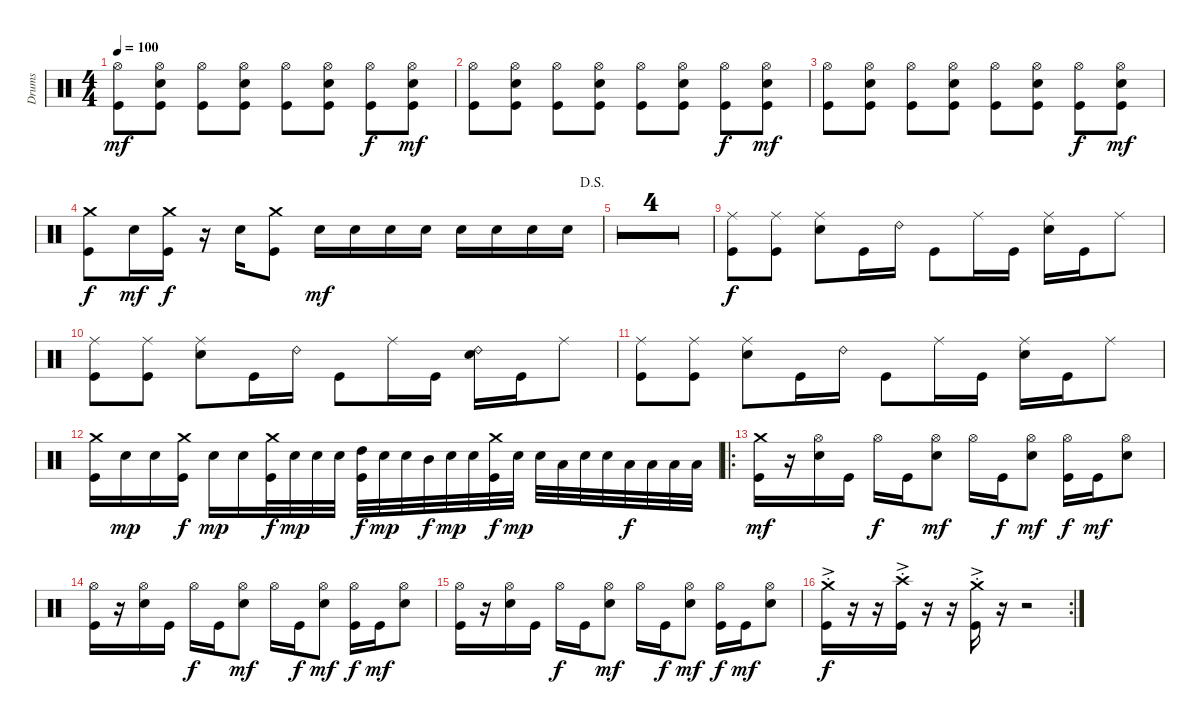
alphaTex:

\bracketExtendMode groupsimilarinstruments
\otherSystemsTrackNameOrientation horizontal
\track ("Drumkit" "Drums") {multiBarRest instrument percussion}
\staff {score}
\articulation defaults
\ts (4 4)
\tempo 100
\clef neutral
\ks c
("Hi-Hat (open)" "Kick (hit)").8{dy mf} ("Hi-Hat (open)" "Snare (hit) 2" "Kick (hit)").8 ("Hi-Hat (open)" "Kick (hit)").8 ("Hi-Hat (open)" "Snare (hit) 2" "Kick (hit)").8 ("Hi-Hat (open)" "Kick (hit)").8 ("Hi-Hat (open)" "Snare (hit) 2" "Kick (hit)").8 ("Hi-Hat (open)" "Kick (hit)").8{dy f} ("Hi-Hat (open)" "Snare (hit) 2" "Kick (hit)").8{dy mf} |
("Hi-Hat (open)" "Kick (hit)").8 ("Hi-Hat (open)" "Snare (hit) 2" "Kick (hit)").8 ("Hi-Hat (open)" "Kick (hit)").8 ("Hi-Hat (open)" "Snare (hit) 2" "Kick (hit)").8 ("Hi-Hat (open)" "Kick (hit)").8 ("Hi-Hat (open)" "Snare (hit) 2" "Kick (hit)").8 ("Hi-Hat (open)" "Kick (hit)").8{dy f} ("Hi-Hat (open)" "Snare (hit) 2" "Kick (hit)").8{dy mf} |
("Hi-Hat (open)" "Kick (hit)").8 ("Hi-Hat (open)" "Snare (hit) 2" "Kick (hit)").8 ("Hi-Hat (open)" "Kick (hit)").8 ("Hi-Hat (open)" "Snare (hit) 2" "Kick (hit)").8 ("Hi-Hat (open)" "Kick (hit)").8 ("Hi-Hat (open)" "Snare (hit) 2" "Kick (hit)").8 ("Hi-Hat (open)" "Kick (hit)").8{dy f} ("Hi-Hat (open)" "Snare (hit) 2" "Kick (hit)").8{dy mf} |
\jump dalsegno
("Crash medium (hit)" "Kick (hit)").8{dy f} "Snare (hit) 2".16{dy mf} ("Crash medium (hit)" "Kick (hit)").16{dy f} r.16 "Snare (hit) 2".16 ("Crash medium (hit)" "Kick (hit)").8 "Snare (hit) 2".16{dy mf} "Snare (hit) 2".16 "Snare (hit) 2".16 "Snare (hit) 2".16 "Snare (hit) 2".16 "Snare (hit) 2".16 "Snare (hit) 2".16 "Snare (hit) 2".16 |
r.4 r.2{d} |
r.4 r.2{d} |
r.4 r.2{d} |
r.4 r.2{d} |
("Ride (middle)" "Kick (hit)").8{dy f} ("Ride (middle)" "Kick (hit)").8 ("Ride (middle)" "Snare (hit) 2").8 "Kick (hit)".16 "Ride (bell) 2".16 "Kick (hit)".8 "Ride (middle)".16 "Kick (hit)".16 ("Ride (middle)" "Snare (hit) 2").16 "Kick (hit)".16 "Ride (middle)".8 |
("Ride (middle)" "Kick (hit)").8 ("Ride (middle)" "Kick (hit)").8 ("Ride (middle)" "Snare (hit) 2").8 "Kick (hit)".16 "Ride (bell) 2".16 "Kick (hit)".8 "Ride (middle)".16 "Kick (hit)".16 ("Ride (bell) 2" "Snare (hit) 2").16 "Kick (hit)".16 "Ride (middle)".8 |
("Ride (middle)" "Kick (hit)").8 ("Ride (middle)" "Kick (hit)").8 ("Ride (middle)" "Snare (hit) 2").8 "Kick (hit)".16 "Ride (bell) 2".16 "Kick (hit)".8 "Ride (middle)".16 "Kick (hit)".16 ("Ride (middle)" "Snare (hit) 2").16 "Kick (hit)".16 "Ride (middle)".8 |
("Crash medium (hit)" "Kick (hit)").16 "Snare (hit) 2".16{dy mp} "Snare (hit) 2".16 ("Crash medium (hit)" "Kick (hit)").16{dy f} "Snare (hit) 2".16{dy mp} "Snare (hit) 2".16 ("Crash medium (hit)" "Kick (hit)").32{dy f} "Snare (hit) 2".32{dy mp} "Snare (hit) 2".32 "Snare (hit) 2".32 ("High Tom (hit)" "Kick (hit)").32{dy f} "Snare (hit) 2".32{dy mp} "Snare (hit) 2".32 "Mid Tom (hit)".32{dy f} "Snare (hit) 2".32{dy mp} "Snare (hit) 2".32 ("Crash medium (hit)" "Kick (hit)").32{dy f} "Snare (hit) 2".32{dy mp} "Snare (hit) 2".32 "Low Tom (hit)".32 "Snare (hit) 2".32 "Snare (hit) 2".32 "Low Tom (hit)".32{dy f} "Low Tom (hit)".32 "Low Tom (hit)".32 "Low Tom (hit)".32 |
\ro
("Crash medium (hit)" "Kick (hit)").16{dy mf} r.16 ("Hi-Hat (open)" "Snare (hit) 2").16 "Kick (hit)".16 "Hi-Hat (open)".16{dy f} "Kick (hit)".16 ("Hi-Hat (open)" "Snare (hit) 2").8{dy mf} "Hi-Hat (open)".16 "Kick (hit)".16{dy f} ("Hi-Hat (open)" "Snare (hit) 2").8{dy mf} ("Hi-Hat (open)" "Kick (hit)").16{dy f} "Kick (hit)".16{dy mf} ("Hi-Hat (open)" "Snare (hit) 2").8 |
("Hi-Hat (open)" "Kick (hit)").16 r.16 ("Hi-Hat (open)" "Snare (hit) 2").16 "Kick (hit)".16 "Hi-Hat (open)".16{dy f} "Kick (hit)".16 ("Hi-Hat (open)" "Snare (hit) 2").8{dy mf} "Hi-Hat (open)".16 "Kick (hit)".16{dy f} ("Hi-Hat (open)" "Snare (hit) 2").8{dy mf} ("Hi-Hat (open)" "Kick (hit)").16{dy f} "Kick (hit)".16{dy mf} ("Hi-Hat (open)" "Snare (hit) 2").8 |
("Hi-Hat (open)" "Kick (hit)").16 r.16 ("Hi-Hat (open)" "Snare (hit) 2").16 "Kick (hit)".16 "Hi-Hat (open)".16{dy f} "Kick (hit)".16 ("Hi-Hat (open)" "Snare (hit) 2").8{dy mf} "Hi-Hat (open)".16 "Kick (hit)".16{dy f} ("Hi-Hat (open)" "Snare (hit) 2").8{dy mf} ("Hi-Hat (open)" "Kick (hit)").16{dy f} "Kick (hit)".16{dy mf} ("Hi-Hat (open)" "Snare (hit) 2").8 |
\rc 2
("Crash medium (hit)"{ac st} "Kick (hit)").16{dy f} r.16 r.16 ("Crash high (hit)"{ac st} "Kick (hit)").16 r.16 r.16 ("Crash medium (hit)"{ac st} "Kick (hit)").16 r.16 r.2
